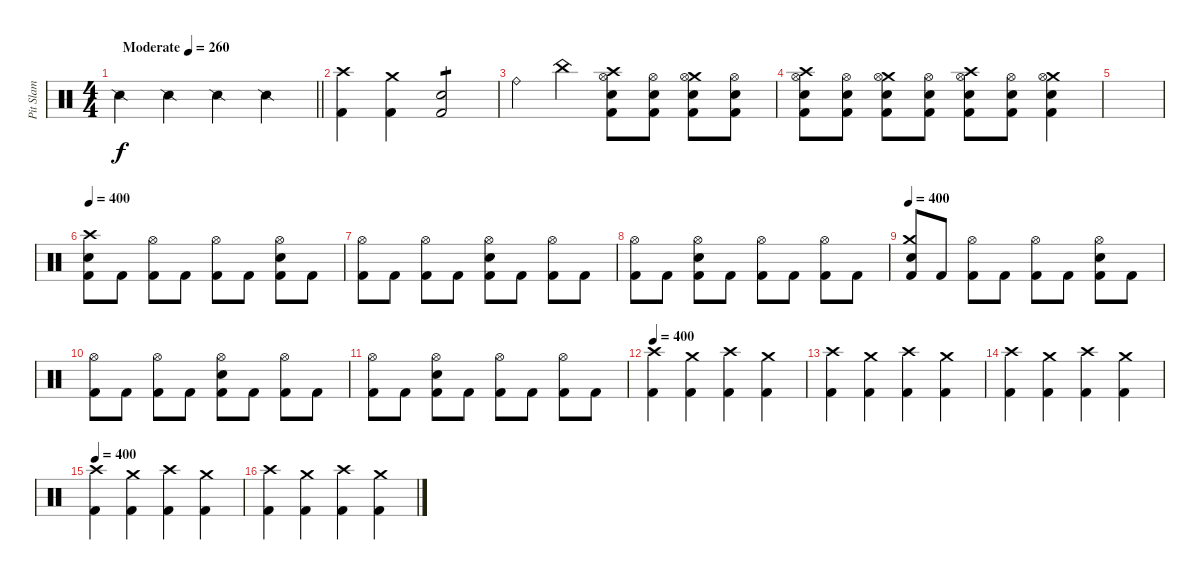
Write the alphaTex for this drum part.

\track ("Pit Slam" "Pit Slam") {instrument percussion}
\staff {score}
\articulation defaults
\ts (4 4)
\tempo (260 "Moderate")
\tempo 280
\tempo (260 "Moderate")
\clef neutral
\barLineRight lightlight
\ks c "Snare (side stick) 2".4{dy f} "Snare (side stick) 2".4 "Snare (side stick) 2".4 "Snare (side stick) 2".4
|
("Crash high (hit)" "Kick (hit) 2").4 ("Crash medium (hit)" "Kick (hit) 2").4 ("Electric Snare (hit)" "Kick (hit) 2").2{tp 1} |
"Ride (bell)".4 "China (hit)".4 ("Crash high (hit)" "Hi-Hat (open)" "Electric Snare (hit)" "Kick (hit) 2").8 ("Hi-Hat (open)" "Electric Snare (hit)" "Kick (hit) 2").8 ("Crash medium (hit)" "Hi-Hat (open)" "Electric Snare (hit)" "Kick (hit) 2").8 ("Hi-Hat (open)" "Electric Snare (hit)" "Kick (hit) 2").8 |
("Crash high (hit)" "Hi-Hat (open)" "Electric Snare (hit)" "Kick (hit) 2").8 ("Hi-Hat (open)" "Electric Snare (hit)" "Kick (hit) 2").8 ("Crash medium (hit)" "Hi-Hat (open)" "Electric Snare (hit)" "Kick (hit) 2").8 ("Hi-Hat (open)" "Electric Snare (hit)" "Kick (hit) 2").8 ("Crash high (hit)" "Hi-Hat (open)" "Electric Snare (hit)" "Kick (hit) 2").8 ("Hi-Hat (open)" "Electric Snare (hit)" "Kick (hit) 2").8 ("Crash medium (hit)" "Hi-Hat (open)" "Electric Snare (hit)" "Kick (hit) 2").4 |
|
\tempo 400
("Crash high (hit)" "Electric Snare (hit)" "Kick (hit) 2").8 "Kick (hit) 2".8 ("Hi-Hat (open)" "Kick (hit) 2").8 "Kick (hit) 2".8 ("Hi-Hat (open)" "Kick (hit) 2").8 "Kick (hit) 2".8 ("Hi-Hat (open)" "Electric Snare (hit)" "Kick (hit) 2").8 "Kick (hit) 2".8 |
("Hi-Hat (open)" "Kick (hit) 2").8 "Kick (hit) 2".8 ("Hi-Hat (open)" "Kick (hit) 2").8 "Kick (hit) 2".8 ("Hi-Hat (open)" "Electric Snare (hit)" "Kick (hit) 2").8 "Kick (hit) 2".8 ("Hi-Hat (open)" "Kick (hit) 2").8 "Kick (hit) 2".8 |
("Hi-Hat (open)" "Kick (hit) 2").8 "Kick (hit) 2".8 ("Hi-Hat (open)" "Electric Snare (hit)" "Kick (hit) 2").8 "Kick (hit) 2".8 ("Hi-Hat (open)" "Kick (hit) 2").8 "Kick (hit) 2".8 ("Hi-Hat (open)" "Kick (hit) 2").8 "Kick (hit) 2".8 |
\tempo 400
("Crash medium (hit)" "Electric Snare (hit)" "Kick (hit) 2").8 "Kick (hit) 2".8 ("Hi-Hat (open)" "Kick (hit) 2").8 "Kick (hit) 2".8 ("Hi-Hat (open)" "Kick (hit) 2").8 "Kick (hit) 2".8 ("Hi-Hat (open)" "Electric Snare (hit)" "Kick (hit) 2").8 "Kick (hit) 2".8 |
("Hi-Hat (open)" "Kick (hit) 2").8 "Kick (hit) 2".8 ("Hi-Hat (open)" "Kick (hit) 2").8 "Kick (hit) 2".8 ("Hi-Hat (open)" "Electric Snare (hit)" "Kick (hit) 2").8 "Kick (hit) 2".8 ("Hi-Hat (open)" "Kick (hit) 2").8 "Kick (hit) 2".8 |
("Hi-Hat (open)" "Kick (hit) 2").8 "Kick (hit) 2".8 ("Hi-Hat (open)" "Electric Snare (hit)" "Kick (hit) 2").8 "Kick (hit) 2".8 ("Hi-Hat (open)" "Kick (hit) 2").8 "Kick (hit) 2".8 ("Hi-Hat (open)" "Kick (hit) 2").8 "Kick (hit) 2".8 |
\tempo 400
("Crash high (hit)" "Kick (hit) 2").4 ("Crash medium (hit)" "Kick (hit) 2").4 ("Crash high (hit)" "Kick (hit) 2").4 ("Crash medium (hit)" "Kick (hit) 2").4 |
("Crash high (hit)" "Kick (hit) 2").4 ("Crash medium (hit)" "Kick (hit) 2").4 ("Crash high (hit)" "Kick (hit) 2").4 ("Crash medium (hit)" "Kick (hit) 2").4 |
("Crash high (hit)" "Kick (hit) 2").4 ("Crash medium (hit)" "Kick (hit) 2").4 ("Crash high (hit)" "Kick (hit) 2").4 ("Crash medium (hit)" "Kick (hit) 2").4 |
\tempo 400
("Crash high (hit)" "Kick (hit) 2").4 ("Crash medium (hit)" "Kick (hit) 2").4 ("Crash high (hit)" "Kick (hit) 2").4 ("Crash medium (hit)" "Kick (hit) 2").4 |
("Crash high (hit)" "Kick (hit) 2").4 ("Crash medium (hit)" "Kick (hit) 2").4 ("Crash high (hit)" "Kick (hit) 2").4 ("Crash medium (hit)" "Kick (hit) 2").4
